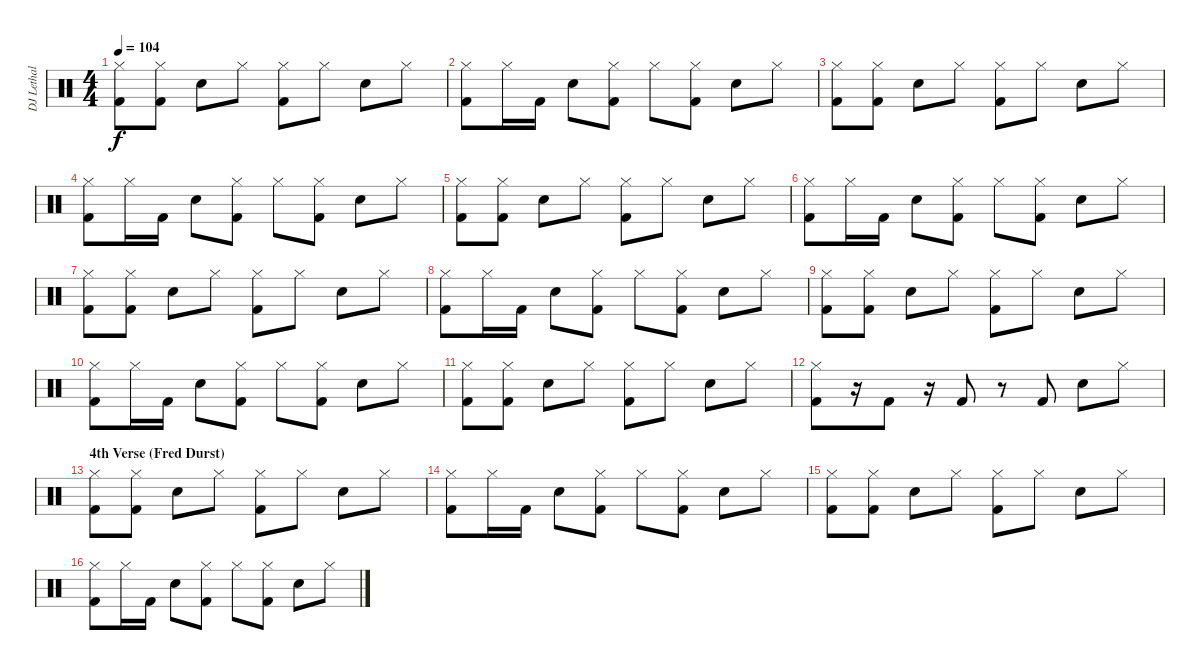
\track ("DJ Lethal - Sample Drums" "DJ Lethal ") {instrument percussion}
\staff {score}
\articulation defaults
\ts (4 4)
\tempo 104
\clef neutral
\ks c
("Hi-Hat (closed)" "Kick (hit) 2").8{dy f} ("Hi-Hat (closed)" "Kick (hit) 2").8 "Electric Snare (hit)".8 "Hi-Hat (closed)".8 ("Hi-Hat (closed)" "Kick (hit) 2").8 "Hi-Hat (closed)".8 "Electric Snare (hit)".8 "Hi-Hat (closed)".8 |
("Hi-Hat (closed)" "Kick (hit) 2").8 "Hi-Hat (closed)".16 "Kick (hit) 2".16 "Electric Snare (hit)".8 ("Hi-Hat (closed)" "Kick (hit) 2").8 "Hi-Hat (closed)".8 ("Hi-Hat (closed)" "Kick (hit) 2").8 "Electric Snare (hit)".8 "Hi-Hat (closed)".8 |
("Hi-Hat (closed)" "Kick (hit) 2").8 ("Hi-Hat (closed)" "Kick (hit) 2").8 "Electric Snare (hit)".8 "Hi-Hat (closed)".8 ("Hi-Hat (closed)" "Kick (hit) 2").8 "Hi-Hat (closed)".8 "Electric Snare (hit)".8 "Hi-Hat (closed)".8 |
("Hi-Hat (closed)" "Kick (hit) 2").8 "Hi-Hat (closed)".16 "Kick (hit) 2".16 "Electric Snare (hit)".8 ("Hi-Hat (closed)" "Kick (hit) 2").8 "Hi-Hat (closed)".8 ("Hi-Hat (closed)" "Kick (hit) 2").8 "Electric Snare (hit)".8 "Hi-Hat (closed)".8 |
("Hi-Hat (closed)" "Kick (hit) 2").8 ("Hi-Hat (closed)" "Kick (hit) 2").8 "Electric Snare (hit)".8 "Hi-Hat (closed)".8 ("Hi-Hat (closed)" "Kick (hit) 2").8 "Hi-Hat (closed)".8 "Electric Snare (hit)".8 "Hi-Hat (closed)".8 |
("Hi-Hat (closed)" "Kick (hit) 2").8 "Hi-Hat (closed)".16 "Kick (hit) 2".16 "Electric Snare (hit)".8 ("Hi-Hat (closed)" "Kick (hit) 2").8 "Hi-Hat (closed)".8 ("Hi-Hat (closed)" "Kick (hit) 2").8 "Electric Snare (hit)".8 "Hi-Hat (closed)".8 |
("Hi-Hat (closed)" "Kick (hit) 2").8 ("Hi-Hat (closed)" "Kick (hit) 2").8 "Electric Snare (hit)".8 "Hi-Hat (closed)".8 ("Hi-Hat (closed)" "Kick (hit) 2").8 "Hi-Hat (closed)".8 "Electric Snare (hit)".8 "Hi-Hat (closed)".8 |
("Hi-Hat (closed)" "Kick (hit) 2").8 "Hi-Hat (closed)".16 "Kick (hit) 2".16 "Electric Snare (hit)".8 ("Hi-Hat (closed)" "Kick (hit) 2").8 "Hi-Hat (closed)".8 ("Hi-Hat (closed)" "Kick (hit) 2").8 "Electric Snare (hit)".8 "Hi-Hat (closed)".8 |
("Hi-Hat (closed)" "Kick (hit) 2").8 ("Hi-Hat (closed)" "Kick (hit) 2").8 "Electric Snare (hit)".8 "Hi-Hat (closed)".8 ("Hi-Hat (closed)" "Kick (hit) 2").8 "Hi-Hat (closed)".8 "Electric Snare (hit)".8 "Hi-Hat (closed)".8 |
("Hi-Hat (closed)" "Kick (hit) 2").8 "Hi-Hat (closed)".16 "Kick (hit) 2".16 "Electric Snare (hit)".8 ("Hi-Hat (closed)" "Kick (hit) 2").8 "Hi-Hat (closed)".8 ("Hi-Hat (closed)" "Kick (hit) 2").8 "Electric Snare (hit)".8 "Hi-Hat (closed)".8 |
("Hi-Hat (closed)" "Kick (hit) 2").8 ("Hi-Hat (closed)" "Kick (hit) 2").8 "Electric Snare (hit)".8 "Hi-Hat (closed)".8 ("Hi-Hat (closed)" "Kick (hit) 2").8 "Hi-Hat (closed)".8 "Electric Snare (hit)".8 "Hi-Hat (closed)".8 |
("Hi-Hat (closed)" "Kick (hit) 2").8 r.16 "Kick (hit) 2".8 r.16 "Kick (hit) 2".8 r.8 "Kick (hit) 2".8 "Electric Snare (hit)".8 "Hi-Hat (closed)".8 |
\section ("" "4th Verse (Fred Durst)")
("Hi-Hat (closed)" "Kick (hit) 2").8 ("Hi-Hat (closed)" "Kick (hit) 2").8 "Electric Snare (hit)".8 "Hi-Hat (closed)".8 ("Hi-Hat (closed)" "Kick (hit) 2").8 "Hi-Hat (closed)".8 "Electric Snare (hit)".8 "Hi-Hat (closed)".8 |
("Hi-Hat (closed)" "Kick (hit) 2").8 "Hi-Hat (closed)".16 "Kick (hit) 2".16 "Electric Snare (hit)".8 ("Hi-Hat (closed)" "Kick (hit) 2").8 "Hi-Hat (closed)".8 ("Hi-Hat (closed)" "Kick (hit) 2").8 "Electric Snare (hit)".8 "Hi-Hat (closed)".8 |
("Hi-Hat (closed)" "Kick (hit) 2").8 ("Hi-Hat (closed)" "Kick (hit) 2").8 "Electric Snare (hit)".8 "Hi-Hat (closed)".8 ("Hi-Hat (closed)" "Kick (hit) 2").8 "Hi-Hat (closed)".8 "Electric Snare (hit)".8 "Hi-Hat (closed)".8 |
("Hi-Hat (closed)" "Kick (hit) 2").8 "Hi-Hat (closed)".16 "Kick (hit) 2".16 "Electric Snare (hit)".8 ("Hi-Hat (closed)" "Kick (hit) 2").8 "Hi-Hat (closed)".8 ("Hi-Hat (closed)" "Kick (hit) 2").8 "Electric Snare (hit)".8 "Hi-Hat (closed)".8
